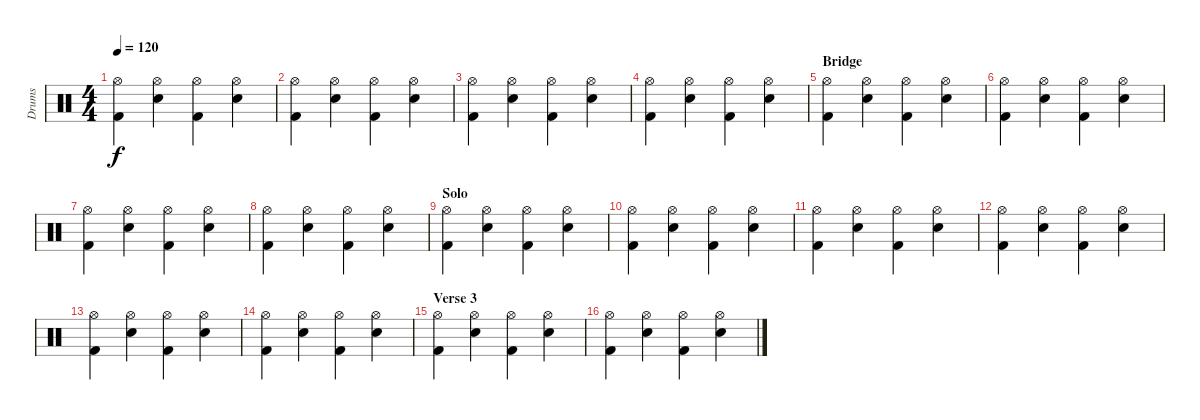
\track ("Drums" "Drums") {instrument percussion}
\staff {score}
\articulation defaults
\ts (4 4)
\tempo 120
\clef neutral
\ks c
("Hi-Hat (open)" "Kick (hit) 2").4{dy f} ("Hi-Hat (open)" "Snare (hit) 2").4 ("Hi-Hat (open)" "Kick (hit) 2").4 ("Hi-Hat (open)" "Snare (hit) 2").4 |
("Hi-Hat (open)" "Kick (hit) 2").4 ("Hi-Hat (open)" "Snare (hit) 2").4 ("Hi-Hat (open)" "Kick (hit) 2").4 ("Hi-Hat (open)" "Snare (hit) 2").4 |
("Hi-Hat (open)" "Kick (hit) 2").4 ("Hi-Hat (open)" "Snare (hit) 2").4 ("Hi-Hat (open)" "Kick (hit) 2").4 ("Hi-Hat (open)" "Snare (hit) 2").4 |
("Hi-Hat (open)" "Kick (hit) 2").4 ("Hi-Hat (open)" "Snare (hit) 2").4 ("Hi-Hat (open)" "Kick (hit) 2").4 ("Hi-Hat (open)" "Snare (hit) 2").4 |
\section ("" "Bridge")
("Hi-Hat (open)" "Kick (hit) 2").4 ("Hi-Hat (open)" "Snare (hit) 2").4 ("Hi-Hat (open)" "Kick (hit) 2").4 ("Hi-Hat (open)" "Snare (hit) 2").4 |
("Hi-Hat (open)" "Kick (hit) 2").4 ("Hi-Hat (open)" "Snare (hit) 2").4 ("Hi-Hat (open)" "Kick (hit) 2").4 ("Hi-Hat (open)" "Snare (hit) 2").4 |
("Hi-Hat (open)" "Kick (hit) 2").4 ("Hi-Hat (open)" "Snare (hit) 2").4 ("Hi-Hat (open)" "Kick (hit) 2").4 ("Hi-Hat (open)" "Snare (hit) 2").4 |
("Hi-Hat (open)" "Kick (hit) 2").4 ("Hi-Hat (open)" "Snare (hit) 2").4 ("Hi-Hat (open)" "Kick (hit) 2").4 ("Hi-Hat (open)" "Snare (hit) 2").4 |
\section ("" "Solo")
("Hi-Hat (open)" "Kick (hit) 2").4 ("Hi-Hat (open)" "Snare (hit) 2").4 ("Hi-Hat (open)" "Kick (hit) 2").4 ("Hi-Hat (open)" "Snare (hit) 2").4 |
("Hi-Hat (open)" "Kick (hit) 2").4 ("Hi-Hat (open)" "Snare (hit) 2").4 ("Hi-Hat (open)" "Kick (hit) 2").4 ("Hi-Hat (open)" "Snare (hit) 2").4 |
("Hi-Hat (open)" "Kick (hit) 2").4 ("Hi-Hat (open)" "Snare (hit) 2").4 ("Hi-Hat (open)" "Kick (hit) 2").4 ("Hi-Hat (open)" "Snare (hit) 2").4 |
("Hi-Hat (open)" "Kick (hit) 2").4 ("Hi-Hat (open)" "Snare (hit) 2").4 ("Hi-Hat (open)" "Kick (hit) 2").4 ("Hi-Hat (open)" "Snare (hit) 2").4 |
("Hi-Hat (open)" "Kick (hit) 2").4 ("Hi-Hat (open)" "Snare (hit) 2").4 ("Hi-Hat (open)" "Kick (hit) 2").4 ("Hi-Hat (open)" "Snare (hit) 2").4 |
("Hi-Hat (open)" "Kick (hit) 2").4 ("Hi-Hat (open)" "Snare (hit) 2").4 ("Hi-Hat (open)" "Kick (hit) 2").4 ("Hi-Hat (open)" "Snare (hit) 2").4 |
\section ("" "Verse 3")
("Hi-Hat (open)" "Kick (hit) 2").4 ("Hi-Hat (open)" "Snare (hit) 2").4 ("Hi-Hat (open)" "Kick (hit) 2").4 ("Hi-Hat (open)" "Snare (hit) 2").4 |
("Hi-Hat (open)" "Kick (hit) 2").4 ("Hi-Hat (open)" "Snare (hit) 2").4 ("Hi-Hat (open)" "Kick (hit) 2").4 ("Hi-Hat (open)" "Snare (hit) 2").4
